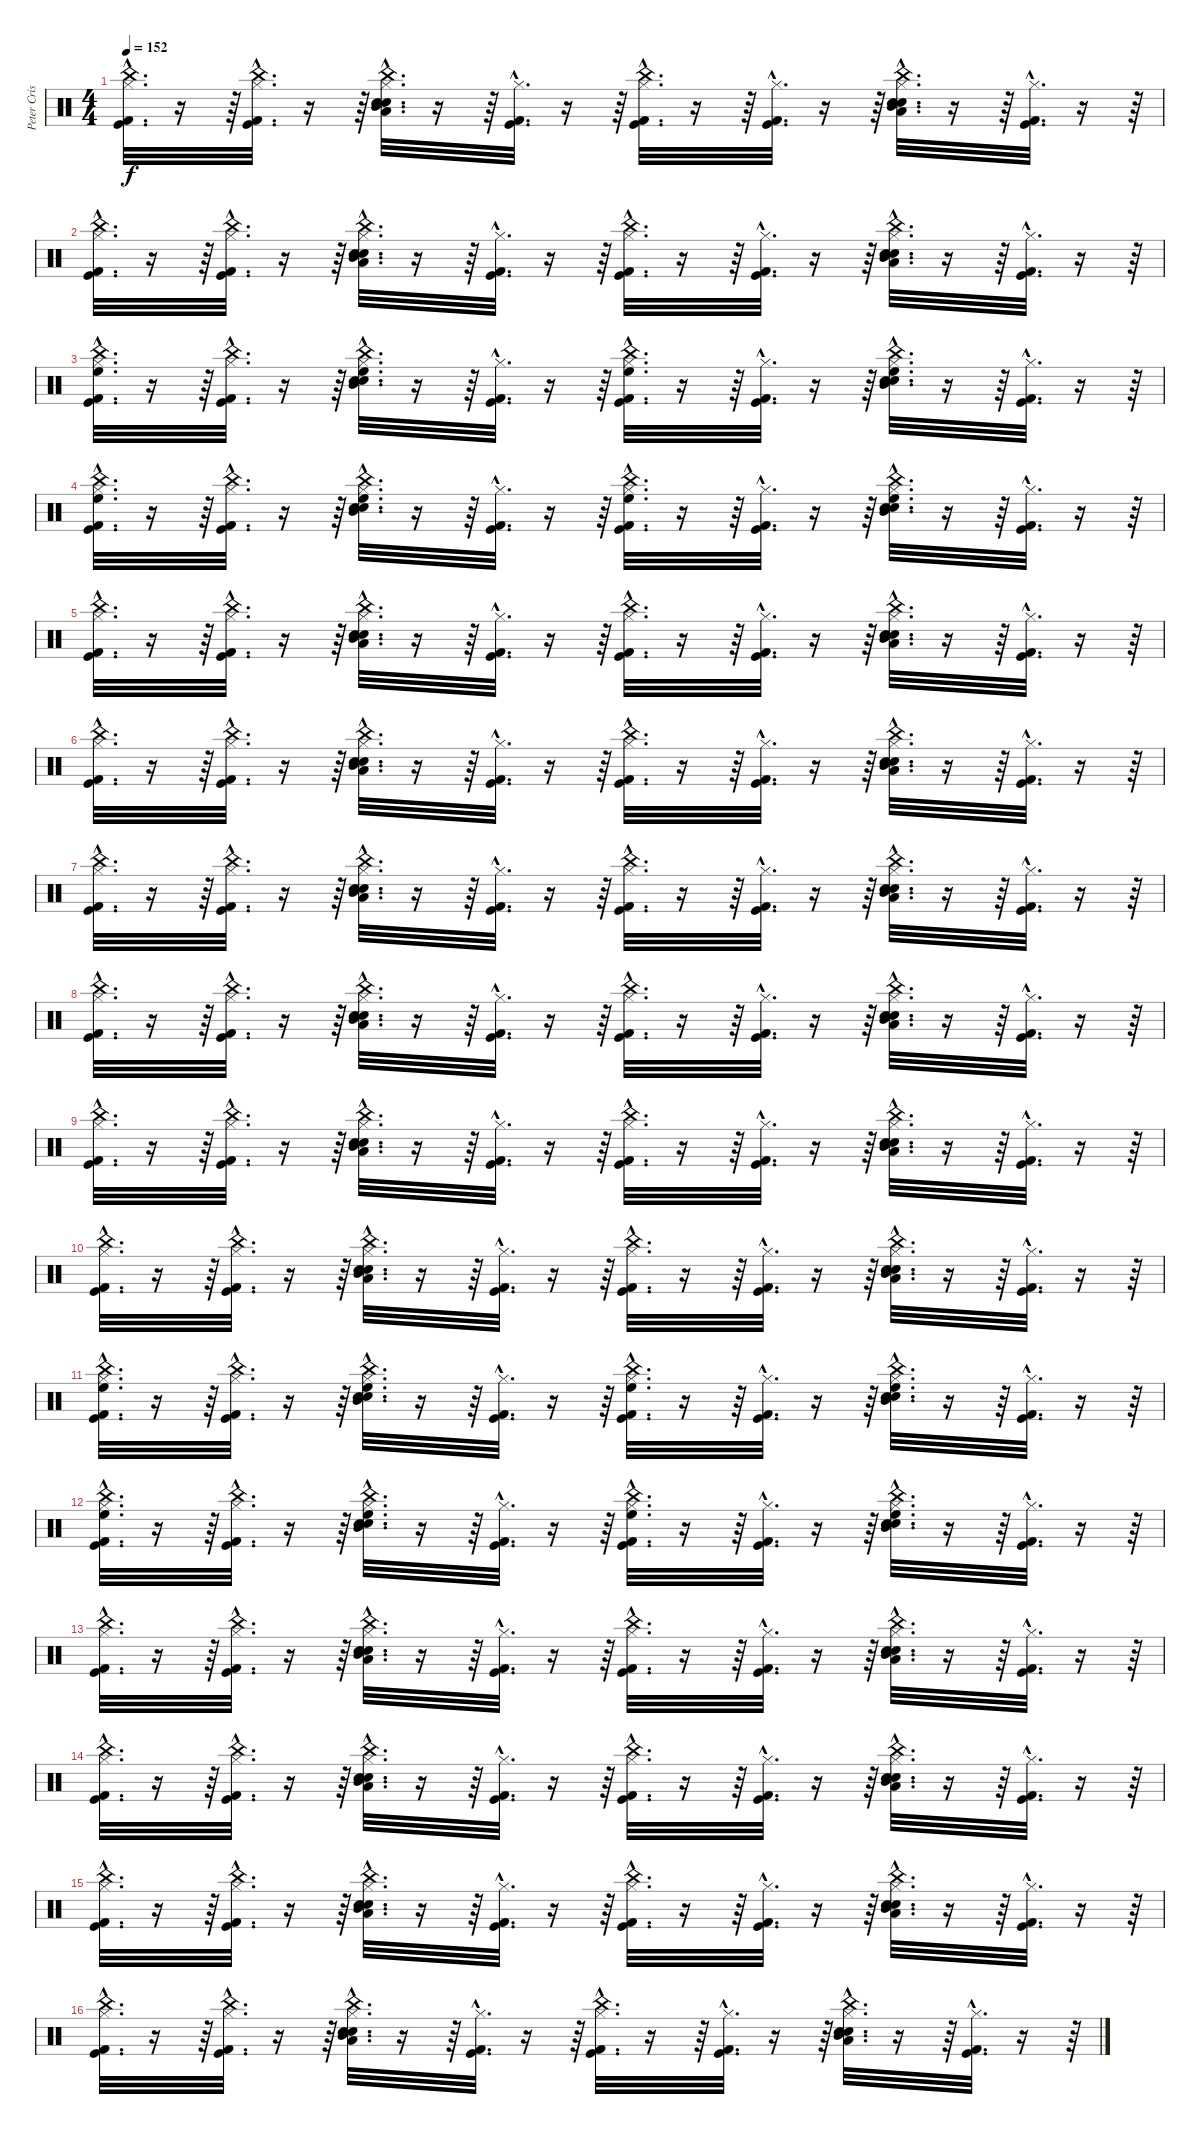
\track ("Peter Criss" "Peter Cris") {instrument percussion}
\staff {score}
\articulation defaults
\ts (4 4)
\tempo 152
\clef neutral
\ks c
("China (hit)"{hac} "Kick (hit) 2"{hac} "Kick (hit)"{hac} "Hi-Hat (closed)"{hac}).32{d dy f} r.16 r.64 ("Kick (hit)"{hac} "Kick (hit) 2"{hac} "China (hit)"{hac} "Hi-Hat (closed)"{hac}).32{d} r.16 r.64 ("China (hit)"{hac} "Electric Snare (hit)"{hac} "Snare (hit) 2"{hac} "Hi-Hat (closed)"{hac} "Mid Tom (hit)"{hac} "Low Tom (hit)"{hac}).32{d} r.16 r.64 ("Kick (hit) 2"{hac} "Kick (hit)"{hac} "Hi-Hat (closed)"{hac}).32{d} r.16 r.64 ("China (hit)"{hac} "Kick (hit)"{hac} "Kick (hit) 2"{hac} "Hi-Hat (closed)"{hac}).32{d} r.16 r.64 ("Kick (hit) 2"{hac} "Kick (hit)"{hac} "Hi-Hat (closed)"{hac}).32{d} r.16 r.64 ("China (hit)"{hac} "Electric Snare (hit)"{hac} "Snare (hit) 2"{hac} "Hi-Hat (closed)"{hac} "Mid Tom (hit)"{hac} "Low Tom (hit)"{hac}).32{d} r.16 r.64 ("Kick (hit) 2"{hac} "Kick (hit)"{hac} "Hi-Hat (closed)"{hac}).32{d} r.16 r.64 |
("China (hit)"{hac} "Kick (hit) 2"{hac} "Kick (hit)"{hac} "Hi-Hat (closed)"{hac}).32{d} r.16 r.64 ("Kick (hit)"{hac} "Kick (hit) 2"{hac} "China (hit)"{hac} "Hi-Hat (closed)"{hac}).32{d} r.16 r.64 ("China (hit)"{hac} "Electric Snare (hit)"{hac} "Snare (hit) 2"{hac} "Hi-Hat (closed)"{hac} "Mid Tom (hit)"{hac} "Low Tom (hit)"{hac}).32{d} r.16 r.64 ("Kick (hit) 2"{hac} "Kick (hit)"{hac} "Hi-Hat (closed)"{hac}).32{d} r.16 r.64 ("China (hit)"{hac} "Kick (hit)"{hac} "Kick (hit) 2"{hac} "Hi-Hat (closed)"{hac}).32{d} r.16 r.64 ("Kick (hit) 2"{hac} "Kick (hit)"{hac} "Hi-Hat (closed)"{hac}).32{d} r.16 r.64 ("China (hit)"{hac} "Electric Snare (hit)"{hac} "Snare (hit) 2"{hac} "Hi-Hat (closed)"{hac} "Mid Tom (hit)"{hac} "Low Tom (hit)"{hac}).32{d} r.16 r.64 ("Kick (hit) 2"{hac} "Kick (hit)"{hac} "Hi-Hat (closed)"{hac}).32{d} r.16 r.64 |
("China (hit)"{hac} "Kick (hit) 2"{hac} "Kick (hit)"{hac} "Hi-Hat (closed)"{hac} "High Floor Tom (hit)"{hac}).32{d} r.16 r.64 ("Kick (hit)"{hac} "Kick (hit) 2"{hac} "China (hit)"{hac} "Hi-Hat (closed)"{hac}).32{d} r.16 r.64 ("China (hit)"{hac} "Electric Snare (hit)"{hac} "Snare (hit) 2"{hac} "Hi-Hat (closed)"{hac} "Mid Tom (hit)"{hac} "High Floor Tom (hit)"{hac}).32{d} r.16 r.64 ("Kick (hit) 2"{hac} "Kick (hit)"{hac} "Hi-Hat (closed)"{hac}).32{d} r.16 r.64 ("China (hit)"{hac} "Kick (hit)"{hac} "Kick (hit) 2"{hac} "Hi-Hat (closed)"{hac} "High Floor Tom (hit)"{hac}).32{d} r.16 r.64 ("Kick (hit) 2"{hac} "Kick (hit)"{hac} "Hi-Hat (closed)"{hac}).32{d} r.16 r.64 ("China (hit)"{hac} "Electric Snare (hit)"{hac} "Snare (hit) 2"{hac} "Hi-Hat (closed)"{hac} "Mid Tom (hit)"{hac} "High Floor Tom (hit)"{hac}).32{d} r.16 r.64 ("Kick (hit) 2"{hac} "Kick (hit)"{hac} "Hi-Hat (closed)"{hac}).32{d} r.16 r.64 |
("China (hit)"{hac} "Kick (hit) 2"{hac} "Kick (hit)"{hac} "Hi-Hat (closed)"{hac} "High Floor Tom (hit)"{hac}).32{d} r.16 r.64 ("Kick (hit)"{hac} "Kick (hit) 2"{hac} "China (hit)"{hac} "Hi-Hat (closed)"{hac}).32{d} r.16 r.64 ("China (hit)"{hac} "Electric Snare (hit)"{hac} "Snare (hit) 2"{hac} "Hi-Hat (closed)"{hac} "Mid Tom (hit)"{hac} "High Floor Tom (hit)"{hac}).32{d} r.16 r.64 ("Kick (hit) 2"{hac} "Kick (hit)"{hac} "Hi-Hat (closed)"{hac}).32{d} r.16 r.64 ("China (hit)"{hac} "Kick (hit)"{hac} "Kick (hit) 2"{hac} "Hi-Hat (closed)"{hac} "High Floor Tom (hit)"{hac}).32{d} r.16 r.64 ("Kick (hit) 2"{hac} "Kick (hit)"{hac} "Hi-Hat (closed)"{hac}).32{d} r.16 r.64 ("China (hit)"{hac} "Electric Snare (hit)"{hac} "Snare (hit) 2"{hac} "Hi-Hat (closed)"{hac} "Mid Tom (hit)"{hac} "High Floor Tom (hit)"{hac}).32{d} r.16 r.64 ("Kick (hit) 2"{hac} "Kick (hit)"{hac} "Hi-Hat (closed)"{hac}).32{d} r.16 r.64 |
("China (hit)"{hac} "Kick (hit) 2"{hac} "Kick (hit)"{hac} "Hi-Hat (closed)"{hac}).32{d} r.16 r.64 ("Kick (hit)"{hac} "Kick (hit) 2"{hac} "China (hit)"{hac} "Hi-Hat (closed)"{hac}).32{d} r.16 r.64 ("China (hit)"{hac} "Electric Snare (hit)"{hac} "Snare (hit) 2"{hac} "Hi-Hat (closed)"{hac} "Mid Tom (hit)"{hac} "Low Tom (hit)"{hac}).32{d} r.16 r.64 ("Kick (hit) 2"{hac} "Kick (hit)"{hac} "Hi-Hat (closed)"{hac}).32{d} r.16 r.64 ("China (hit)"{hac} "Kick (hit)"{hac} "Kick (hit) 2"{hac} "Hi-Hat (closed)"{hac}).32{d} r.16 r.64 ("Kick (hit) 2"{hac} "Kick (hit)"{hac} "Hi-Hat (closed)"{hac}).32{d} r.16 r.64 ("China (hit)"{hac} "Electric Snare (hit)"{hac} "Snare (hit) 2"{hac} "Hi-Hat (closed)"{hac} "Mid Tom (hit)"{hac} "Low Tom (hit)"{hac}).32{d} r.16 r.64 ("Kick (hit) 2"{hac} "Kick (hit)"{hac} "Hi-Hat (closed)"{hac}).32{d} r.16 r.64 |
("China (hit)"{hac} "Kick (hit) 2"{hac} "Kick (hit)"{hac} "Hi-Hat (closed)"{hac}).32{d} r.16 r.64 ("Kick (hit)"{hac} "Kick (hit) 2"{hac} "China (hit)"{hac} "Hi-Hat (closed)"{hac}).32{d} r.16 r.64 ("China (hit)"{hac} "Electric Snare (hit)"{hac} "Snare (hit) 2"{hac} "Hi-Hat (closed)"{hac} "Mid Tom (hit)"{hac} "Low Tom (hit)"{hac}).32{d} r.16 r.64 ("Kick (hit) 2"{hac} "Kick (hit)"{hac} "Hi-Hat (closed)"{hac}).32{d} r.16 r.64 ("China (hit)"{hac} "Kick (hit)"{hac} "Kick (hit) 2"{hac} "Hi-Hat (closed)"{hac}).32{d} r.16 r.64 ("Kick (hit) 2"{hac} "Kick (hit)"{hac} "Hi-Hat (closed)"{hac}).32{d} r.16 r.64 ("China (hit)"{hac} "Electric Snare (hit)"{hac} "Snare (hit) 2"{hac} "Hi-Hat (closed)"{hac} "Mid Tom (hit)"{hac} "Low Tom (hit)"{hac}).32{d} r.16 r.64 ("Kick (hit) 2"{hac} "Kick (hit)"{hac} "Hi-Hat (closed)"{hac}).32{d} r.16 r.64 |
("China (hit)"{hac} "Kick (hit) 2"{hac} "Kick (hit)"{hac} "Hi-Hat (closed)"{hac}).32{d} r.16 r.64 ("Kick (hit)"{hac} "Kick (hit) 2"{hac} "China (hit)"{hac} "Hi-Hat (closed)"{hac}).32{d} r.16 r.64 ("China (hit)"{hac} "Electric Snare (hit)"{hac} "Snare (hit) 2"{hac} "Hi-Hat (closed)"{hac} "Mid Tom (hit)"{hac} "Low Tom (hit)"{hac}).32{d} r.16 r.64 ("Kick (hit) 2"{hac} "Kick (hit)"{hac} "Hi-Hat (closed)"{hac}).32{d} r.16 r.64 ("China (hit)"{hac} "Kick (hit)"{hac} "Kick (hit) 2"{hac} "Hi-Hat (closed)"{hac}).32{d} r.16 r.64 ("Kick (hit) 2"{hac} "Kick (hit)"{hac} "Hi-Hat (closed)"{hac}).32{d} r.16 r.64 ("China (hit)"{hac} "Electric Snare (hit)"{hac} "Snare (hit) 2"{hac} "Hi-Hat (closed)"{hac} "Mid Tom (hit)"{hac} "Low Tom (hit)"{hac}).32{d} r.16 r.64 ("Kick (hit) 2"{hac} "Kick (hit)"{hac} "Hi-Hat (closed)"{hac}).32{d} r.16 r.64 |
("China (hit)"{hac} "Kick (hit) 2"{hac} "Kick (hit)"{hac} "Hi-Hat (closed)"{hac}).32{d} r.16 r.64 ("Kick (hit)"{hac} "Kick (hit) 2"{hac} "China (hit)"{hac} "Hi-Hat (closed)"{hac}).32{d} r.16 r.64 ("China (hit)"{hac} "Electric Snare (hit)"{hac} "Snare (hit) 2"{hac} "Hi-Hat (closed)"{hac} "Mid Tom (hit)"{hac} "Low Tom (hit)"{hac}).32{d} r.16 r.64 ("Kick (hit) 2"{hac} "Kick (hit)"{hac} "Hi-Hat (closed)"{hac}).32{d} r.16 r.64 ("China (hit)"{hac} "Kick (hit)"{hac} "Kick (hit) 2"{hac} "Hi-Hat (closed)"{hac}).32{d} r.16 r.64 ("Kick (hit) 2"{hac} "Kick (hit)"{hac} "Hi-Hat (closed)"{hac}).32{d} r.16 r.64 ("China (hit)"{hac} "Electric Snare (hit)"{hac} "Snare (hit) 2"{hac} "Hi-Hat (closed)"{hac} "Mid Tom (hit)"{hac} "Low Tom (hit)"{hac}).32{d} r.16 r.64 ("Kick (hit) 2"{hac} "Kick (hit)"{hac} "Hi-Hat (closed)"{hac}).32{d} r.16 r.64 |
("China (hit)"{hac} "Kick (hit) 2"{hac} "Kick (hit)"{hac} "Hi-Hat (closed)"{hac}).32{d} r.16 r.64 ("Kick (hit)"{hac} "Kick (hit) 2"{hac} "China (hit)"{hac} "Hi-Hat (closed)"{hac}).32{d} r.16 r.64 ("China (hit)"{hac} "Electric Snare (hit)"{hac} "Snare (hit) 2"{hac} "Hi-Hat (closed)"{hac} "Mid Tom (hit)"{hac} "Low Tom (hit)"{hac}).32{d} r.16 r.64 ("Kick (hit) 2"{hac} "Kick (hit)"{hac} "Hi-Hat (closed)"{hac}).32{d} r.16 r.64 ("China (hit)"{hac} "Kick (hit)"{hac} "Kick (hit) 2"{hac} "Hi-Hat (closed)"{hac}).32{d} r.16 r.64 ("Kick (hit) 2"{hac} "Kick (hit)"{hac} "Hi-Hat (closed)"{hac}).32{d} r.16 r.64 ("China (hit)"{hac} "Electric Snare (hit)"{hac} "Snare (hit) 2"{hac} "Hi-Hat (closed)"{hac} "Mid Tom (hit)"{hac} "Low Tom (hit)"{hac}).32{d} r.16 r.64 ("Kick (hit) 2"{hac} "Kick (hit)"{hac} "Hi-Hat (closed)"{hac}).32{d} r.16 r.64 |
("China (hit)"{hac} "Kick (hit) 2"{hac} "Kick (hit)"{hac} "Hi-Hat (closed)"{hac}).32{d} r.16 r.64 ("Kick (hit)"{hac} "Kick (hit) 2"{hac} "China (hit)"{hac} "Hi-Hat (closed)"{hac}).32{d} r.16 r.64 ("China (hit)"{hac} "Electric Snare (hit)"{hac} "Snare (hit) 2"{hac} "Hi-Hat (closed)"{hac} "Mid Tom (hit)"{hac} "Low Tom (hit)"{hac}).32{d} r.16 r.64 ("Kick (hit) 2"{hac} "Kick (hit)"{hac} "Hi-Hat (closed)"{hac}).32{d} r.16 r.64 ("China (hit)"{hac} "Kick (hit)"{hac} "Kick (hit) 2"{hac} "Hi-Hat (closed)"{hac}).32{d} r.16 r.64 ("Kick (hit) 2"{hac} "Kick (hit)"{hac} "Hi-Hat (closed)"{hac}).32{d} r.16 r.64 ("China (hit)"{hac} "Electric Snare (hit)"{hac} "Snare (hit) 2"{hac} "Hi-Hat (closed)"{hac} "Mid Tom (hit)"{hac} "Low Tom (hit)"{hac}).32{d} r.16 r.64 ("Kick (hit) 2"{hac} "Kick (hit)"{hac} "Hi-Hat (closed)"{hac}).32{d} r.16 r.64 |
("China (hit)"{hac} "Kick (hit) 2"{hac} "Kick (hit)"{hac} "Hi-Hat (closed)"{hac} "High Floor Tom (hit)"{hac}).32{d} r.16 r.64 ("Kick (hit)"{hac} "Kick (hit) 2"{hac} "China (hit)"{hac} "Hi-Hat (closed)"{hac}).32{d} r.16 r.64 ("China (hit)"{hac} "Electric Snare (hit)"{hac} "Snare (hit) 2"{hac} "Hi-Hat (closed)"{hac} "Mid Tom (hit)"{hac} "High Floor Tom (hit)"{hac}).32{d} r.16 r.64 ("Kick (hit) 2"{hac} "Kick (hit)"{hac} "Hi-Hat (closed)"{hac}).32{d} r.16 r.64 ("China (hit)"{hac} "Kick (hit)"{hac} "Kick (hit) 2"{hac} "Hi-Hat (closed)"{hac} "High Floor Tom (hit)"{hac}).32{d} r.16 r.64 ("Kick (hit) 2"{hac} "Kick (hit)"{hac} "Hi-Hat (closed)"{hac}).32{d} r.16 r.64 ("China (hit)"{hac} "Electric Snare (hit)"{hac} "Snare (hit) 2"{hac} "Hi-Hat (closed)"{hac} "Mid Tom (hit)"{hac} "High Floor Tom (hit)"{hac}).32{d} r.16 r.64 ("Kick (hit) 2"{hac} "Kick (hit)"{hac} "Hi-Hat (closed)"{hac}).32{d} r.16 r.64 |
("China (hit)"{hac} "Kick (hit) 2"{hac} "Kick (hit)"{hac} "Hi-Hat (closed)"{hac} "High Floor Tom (hit)"{hac}).32{d} r.16 r.64 ("Kick (hit)"{hac} "Kick (hit) 2"{hac} "China (hit)"{hac} "Hi-Hat (closed)"{hac}).32{d} r.16 r.64 ("China (hit)"{hac} "Electric Snare (hit)"{hac} "Snare (hit) 2"{hac} "Hi-Hat (closed)"{hac} "Mid Tom (hit)"{hac} "High Floor Tom (hit)"{hac}).32{d} r.16 r.64 ("Kick (hit) 2"{hac} "Kick (hit)"{hac} "Hi-Hat (closed)"{hac}).32{d} r.16 r.64 ("China (hit)"{hac} "Kick (hit)"{hac} "Kick (hit) 2"{hac} "Hi-Hat (closed)"{hac} "High Floor Tom (hit)"{hac}).32{d} r.16 r.64 ("Kick (hit) 2"{hac} "Kick (hit)"{hac} "Hi-Hat (closed)"{hac}).32{d} r.16 r.64 ("China (hit)"{hac} "Electric Snare (hit)"{hac} "Snare (hit) 2"{hac} "Hi-Hat (closed)"{hac} "Mid Tom (hit)"{hac} "High Floor Tom (hit)"{hac}).32{d} r.16 r.64 ("Kick (hit) 2"{hac} "Kick (hit)"{hac} "Hi-Hat (closed)"{hac}).32{d} r.16 r.64 |
("China (hit)"{hac} "Kick (hit) 2"{hac} "Kick (hit)"{hac} "Hi-Hat (closed)"{hac}).32{d} r.16 r.64 ("Kick (hit)"{hac} "Kick (hit) 2"{hac} "China (hit)"{hac} "Hi-Hat (closed)"{hac}).32{d} r.16 r.64 ("China (hit)"{hac} "Electric Snare (hit)"{hac} "Snare (hit) 2"{hac} "Hi-Hat (closed)"{hac} "Mid Tom (hit)"{hac} "Low Tom (hit)"{hac}).32{d} r.16 r.64 ("Kick (hit) 2"{hac} "Kick (hit)"{hac} "Hi-Hat (closed)"{hac}).32{d} r.16 r.64 ("China (hit)"{hac} "Kick (hit)"{hac} "Kick (hit) 2"{hac} "Hi-Hat (closed)"{hac}).32{d} r.16 r.64 ("Kick (hit) 2"{hac} "Kick (hit)"{hac} "Hi-Hat (closed)"{hac}).32{d} r.16 r.64 ("China (hit)"{hac} "Electric Snare (hit)"{hac} "Snare (hit) 2"{hac} "Hi-Hat (closed)"{hac} "Mid Tom (hit)"{hac} "Low Tom (hit)"{hac}).32{d} r.16 r.64 ("Kick (hit) 2"{hac} "Kick (hit)"{hac} "Hi-Hat (closed)"{hac}).32{d} r.16 r.64 |
("China (hit)"{hac} "Kick (hit) 2"{hac} "Kick (hit)"{hac} "Hi-Hat (closed)"{hac}).32{d} r.16 r.64 ("Kick (hit)"{hac} "Kick (hit) 2"{hac} "China (hit)"{hac} "Hi-Hat (closed)"{hac}).32{d} r.16 r.64 ("China (hit)"{hac} "Electric Snare (hit)"{hac} "Snare (hit) 2"{hac} "Hi-Hat (closed)"{hac} "Mid Tom (hit)"{hac} "Low Tom (hit)"{hac}).32{d} r.16 r.64 ("Kick (hit) 2"{hac} "Kick (hit)"{hac} "Hi-Hat (closed)"{hac}).32{d} r.16 r.64 ("China (hit)"{hac} "Kick (hit)"{hac} "Kick (hit) 2"{hac} "Hi-Hat (closed)"{hac}).32{d} r.16 r.64 ("Kick (hit) 2"{hac} "Kick (hit)"{hac} "Hi-Hat (closed)"{hac}).32{d} r.16 r.64 ("China (hit)"{hac} "Electric Snare (hit)"{hac} "Snare (hit) 2"{hac} "Hi-Hat (closed)"{hac} "Mid Tom (hit)"{hac} "Low Tom (hit)"{hac}).32{d} r.16 r.64 ("Kick (hit) 2"{hac} "Kick (hit)"{hac} "Hi-Hat (closed)"{hac}).32{d} r.16 r.64 |
("China (hit)"{hac} "Kick (hit) 2"{hac} "Kick (hit)"{hac} "Hi-Hat (closed)"{hac}).32{d} r.16 r.64 ("Kick (hit)"{hac} "Kick (hit) 2"{hac} "China (hit)"{hac} "Hi-Hat (closed)"{hac}).32{d} r.16 r.64 ("China (hit)"{hac} "Electric Snare (hit)"{hac} "Snare (hit) 2"{hac} "Hi-Hat (closed)"{hac} "Mid Tom (hit)"{hac} "Low Tom (hit)"{hac}).32{d} r.16 r.64 ("Kick (hit) 2"{hac} "Kick (hit)"{hac} "Hi-Hat (closed)"{hac}).32{d} r.16 r.64 ("China (hit)"{hac} "Kick (hit)"{hac} "Kick (hit) 2"{hac} "Hi-Hat (closed)"{hac}).32{d} r.16 r.64 ("Kick (hit) 2"{hac} "Kick (hit)"{hac} "Hi-Hat (closed)"{hac}).32{d} r.16 r.64 ("China (hit)"{hac} "Electric Snare (hit)"{hac} "Snare (hit) 2"{hac} "Hi-Hat (closed)"{hac} "Mid Tom (hit)"{hac} "Low Tom (hit)"{hac}).32{d} r.16 r.64 ("Kick (hit) 2"{hac} "Kick (hit)"{hac} "Hi-Hat (closed)"{hac}).32{d} r.16 r.64 |
("China (hit)"{hac} "Kick (hit) 2"{hac} "Kick (hit)"{hac} "Hi-Hat (closed)"{hac}).32{d} r.16 r.64 ("Kick (hit)"{hac} "Kick (hit) 2"{hac} "China (hit)"{hac} "Hi-Hat (closed)"{hac}).32{d} r.16 r.64 ("China (hit)"{hac} "Electric Snare (hit)"{hac} "Snare (hit) 2"{hac} "Hi-Hat (closed)"{hac} "Mid Tom (hit)"{hac} "Low Tom (hit)"{hac}).32{d} r.16 r.64 ("Kick (hit) 2"{hac} "Kick (hit)"{hac} "Hi-Hat (closed)"{hac}).32{d} r.16 r.64 ("China (hit)"{hac} "Kick (hit)"{hac} "Kick (hit) 2"{hac} "Hi-Hat (closed)"{hac}).32{d} r.16 r.64 ("Kick (hit) 2"{hac} "Kick (hit)"{hac} "Hi-Hat (closed)"{hac}).32{d} r.16 r.64 ("China (hit)"{hac} "Electric Snare (hit)"{hac} "Snare (hit) 2"{hac} "Hi-Hat (closed)"{hac} "Mid Tom (hit)"{hac} "Low Tom (hit)"{hac}).32{d} r.16 r.64 ("Kick (hit) 2"{hac} "Kick (hit)"{hac} "Hi-Hat (closed)"{hac}).32{d} r.16 r.64
